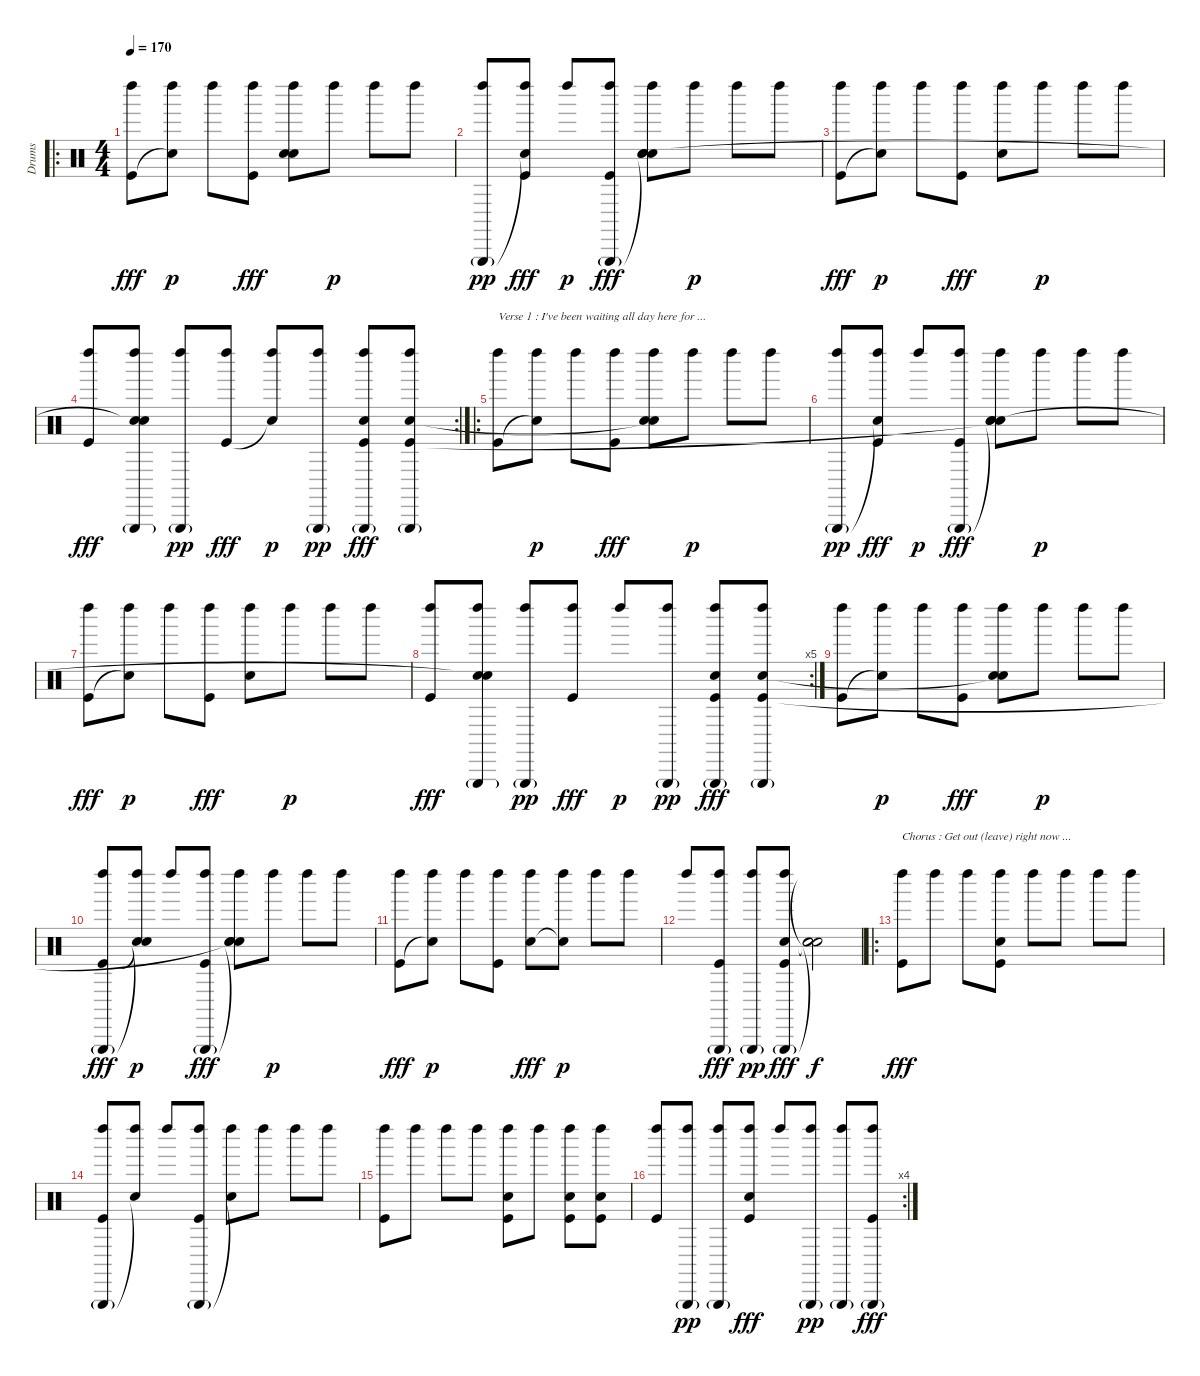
\track ("Drums" "Drums") {instrument percussion}
\staff {score}
\articulation defaults
\ro
\ts (4 4)
\tempo 170
\clef neutral
\ks c
("Left Maraca (hit)" "Kick (hit)").8{dy fff} ("Left Maraca (hit)" "Snare (hit)"{t}).8{dy p} "Left Maraca (hit)".8 ("Left Maraca (hit)" "Kick (hit)").8{dy fff} ("Left Maraca (hit)" "Hand Clap (hit)" "Snare (hit)").8 "Left Maraca (hit)".8{dy p} "Left Maraca (hit)".8 "Left Maraca (hit)".8 |
("Left Maraca (hit)" "Triangle (hit)"{g}).8{dy pp} ("Left Maraca (hit)" "Snare (hit)"{t} "Kick (hit)").8{dy fff} "Left Maraca (hit)".8{dy p} ("Left Maraca (hit)" "Triangle (hit)"{g} "Kick (hit)").8{dy fff} ("Left Maraca (hit)" "Snare (hit)"{t} "Hand Clap (hit)" "Snare (hit)").8 "Left Maraca (hit)".8{dy p} "Left Maraca (hit)".8 "Left Maraca (hit)".8 |
("Left Maraca (hit)" "Kick (hit)").8{dy fff} ("Left Maraca (hit)" "Snare (hit)"{t}).8{dy p} "Left Maraca (hit)".8 ("Left Maraca (hit)" "Kick (hit)").8{dy fff} ("Left Maraca (hit)" "Hand Clap (hit)").8 "Left Maraca (hit)".8{dy p} "Left Maraca (hit)".8 "Left Maraca (hit)".8 |
\rc 2
("Left Maraca (hit)" "Kick (hit)").8{dy fff} ("Left Maraca (hit)" "Triangle (hit)"{g} "Hand Clap (hit)" "Snare (hit)"{t}).8 ("Left Maraca (hit)" "Triangle (hit)"{g}).8{dy pp} ("Left Maraca (hit)" "Kick (hit)").8{dy fff} ("Left Maraca (hit)" "Snare (hit)"{t}).8{dy p} ("Left Maraca (hit)" "Triangle (hit)"{g}).8{dy pp} ("Left Maraca (hit)" "Triangle (hit)"{g} "Hand Clap (hit)" "Kick (hit)").8{dy fff} ("Left Maraca (hit)" "Triangle (hit)"{g} "Hand Clap (hit)" "Kick (hit)").8 |
\ro
("Left Maraca (hit)" "Kick (hit)").8{txt "Verse 1 : I've been waiting all day here for ..."} ("Left Maraca (hit)" "Snare (hit)"{t}).8{dy p} "Left Maraca (hit)".8 ("Left Maraca (hit)" "Kick (hit)").8{dy fff} ("Left Maraca (hit)" "Hand Clap (hit)" "Snare (hit)"{t}).8 "Left Maraca (hit)".8{dy p} "Left Maraca (hit)".8 "Left Maraca (hit)".8 |
("Left Maraca (hit)" "Triangle (hit)"{g}).8{dy pp} ("Left Maraca (hit)" "Snare (hit)"{t} "Kick (hit)").8{dy fff} "Left Maraca (hit)".8{dy p} ("Left Maraca (hit)" "Triangle (hit)"{g} "Kick (hit)").8{dy fff} ("Left Maraca (hit)" "Snare (hit)"{t} "Hand Clap (hit)" "Snare (hit)"{t}).8 "Left Maraca (hit)".8{dy p} "Left Maraca (hit)".8 "Left Maraca (hit)".8 |
("Left Maraca (hit)" "Kick (hit)").8{dy fff} ("Left Maraca (hit)" "Snare (hit)"{t}).8{dy p} "Left Maraca (hit)".8 ("Left Maraca (hit)" "Kick (hit)").8{dy fff} ("Left Maraca (hit)" "Hand Clap (hit)").8 "Left Maraca (hit)".8{dy p} "Left Maraca (hit)".8 "Left Maraca (hit)".8 |
\rc 5
("Left Maraca (hit)" "Kick (hit)").8{dy fff} ("Left Maraca (hit)" "Triangle (hit)"{g} "Hand Clap (hit)" "Snare (hit)"{t}).8 ("Left Maraca (hit)" "Triangle (hit)"{g}).8{dy pp} ("Left Maraca (hit)" "Kick (hit)").8{dy fff} "Left Maraca (hit)".8{dy p} ("Left Maraca (hit)" "Triangle (hit)"{g}).8{dy pp} ("Left Maraca (hit)" "Triangle (hit)"{g} "Hand Clap (hit)" "Kick (hit)").8{dy fff} ("Left Maraca (hit)" "Triangle (hit)"{g} "Hand Clap (hit)" "Kick (hit)").8 |
("Left Maraca (hit)" "Kick (hit)").8 ("Left Maraca (hit)" "Snare (hit)"{t}).8{dy p} "Left Maraca (hit)".8 ("Left Maraca (hit)" "Kick (hit)").8{dy fff} ("Left Maraca (hit)" "Hand Clap (hit)" "Snare (hit)"{t}).8 "Left Maraca (hit)".8{dy p} "Left Maraca (hit)".8 "Left Maraca (hit)".8 |
("Left Maraca (hit)" "Triangle (hit)"{g} "Kick (hit)").8{dy fff} ("Left Maraca (hit)" "Snare (hit)"{t} "Snare (hit)"{t}).8{dy p} "Left Maraca (hit)".8 ("Left Maraca (hit)" "Triangle (hit)"{g} "Kick (hit)").8{dy fff} ("Left Maraca (hit)" "Snare (hit)"{t} "Hand Clap (hit)" "Snare (hit)"{t}).8 "Left Maraca (hit)".8{dy p} "Left Maraca (hit)".8 "Left Maraca (hit)".8 |
("Left Maraca (hit)" "Kick (hit)").8{dy fff} ("Left Maraca (hit)" "Snare (hit)"{t}).8{dy p} "Left Maraca (hit)".8 ("Left Maraca (hit)" "Kick (hit)").8 ("Left Maraca (hit)" "Hand Clap (hit)").8{dy fff} ("Left Maraca (hit)" "Snare (hit)"{t}).8{dy p} "Left Maraca (hit)".8 "Left Maraca (hit)".8 |
"Left Maraca (hit)".8 ("Left Maraca (hit)" "Triangle (hit)"{g} "Kick (hit)").8{dy fff} ("Left Maraca (hit)" "Triangle (hit)"{g}).8{dy pp} ("Left Maraca (hit)" "Triangle (hit)"{g} "Hand Clap (hit)" "Kick (hit)").8{dy fff} ("Snare (hit)"{t} "Snare (hit)"{t} "Snare (hit)"{t}).2{dy f} |
\ro
("Left Maraca (hit)" "Kick (hit)").8{txt "Chorus : Get out (leave) right now ..." dy fff} "Left Maraca (hit)".8 "Left Maraca (hit)".8 ("Left Maraca (hit)" "Hand Clap (hit)" "Kick (hit)").8 "Left Maraca (hit)".8 "Left Maraca (hit)".8 "Left Maraca (hit)".8 "Left Maraca (hit)".8 |
("Left Maraca (hit)" "Triangle (hit)"{g} "Kick (hit)").8 ("Left Maraca (hit)" "Snare (hit)"{t}).8 "Left Maraca (hit)".8 ("Left Maraca (hit)" "Triangle (hit)"{g} "Kick (hit)").8 ("Left Maraca (hit)" "Snare (hit)"{t}).8 "Left Maraca (hit)".8 "Left Maraca (hit)".8 "Left Maraca (hit)".8 |
("Left Maraca (hit)" "Kick (hit)").8 "Left Maraca (hit)".8 "Left Maraca (hit)".8 "Left Maraca (hit)".8 ("Left Maraca (hit)" "Hand Clap (hit)" "Kick (hit)").8 "Left Maraca (hit)".8 ("Left Maraca (hit)" "Hand Clap (hit)" "Kick (hit)").8 ("Left Maraca (hit)" "Hand Clap (hit)" "Kick (hit)").8 |
\rc 4
("Left Maraca (hit)" "Kick (hit)").8 ("Left Maraca (hit)" "Triangle (hit)"{g}).8{dy pp} ("Left Maraca (hit)" "Triangle (hit)"{g}).8 ("Left Maraca (hit)" "Hand Clap (hit)" "Kick (hit)").8{dy fff} "Left Maraca (hit)".8 ("Left Maraca (hit)" "Triangle (hit)"{g}).8{dy pp} ("Left Maraca (hit)" "Triangle (hit)"{g}).8 ("Left Maraca (hit)" "Triangle (hit)"{g} "Kick (hit)").8{dy fff}
